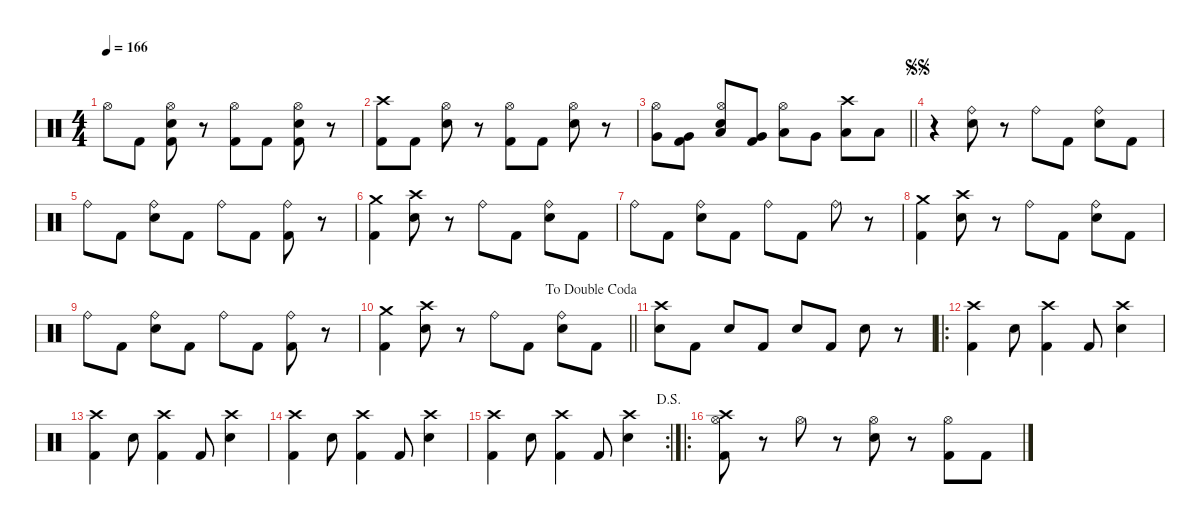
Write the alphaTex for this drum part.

\defaultSystemsLayout 4
\hideDynamics
\bracketExtendMode nobrackets
\singleTrackTrackNamePolicy hidden
\multiTrackTrackNamePolicy hidden
\firstSystemTrackNameMode fullname
\otherSystemsTrackNameOrientation horizontal
\track ("Drums" "drm.") {instrument percussion}
\staff {score}
\articulation defaults
\ts (4 4)
\tempo 166
\clef neutral
\ks c "Hi-Hat (open)".8{dy f beam Down} "Kick (hit) 2".8{beam Down}
("Snare (hit) 2" "Hi-Hat (open)" "Kick (hit) 2").8{beam Down} r.8{beam Down} ("Hi-Hat (open)" "Kick (hit) 2").8{beam Down} "Kick (hit) 2".8{beam Down} ("Snare (hit) 2" "Hi-Hat (open)" "Kick (hit) 2").8{beam Down} r.8{beam Down} |
("Kick (hit) 2" "Crash high (hit)").8{beam Down} "Kick (hit) 2".8{beam Down} ("Snare (hit) 2" "Hi-Hat (open)").8{beam Down} r.8{beam Down} ("Hi-Hat (open)" "Kick (hit) 2").8{beam Down} "Kick (hit) 2".8{beam Down} ("Snare (hit) 2" "Hi-Hat (open)").8{beam Down} r.8{beam Down} |
\barLineRight lightlight
("Hi-Hat (open)" "Very Low Tom (hit)").8{beam Down} ("Kick (hit) 2" "Very Low Tom (hit)").8{beam Down} ("Snare (hit) 2" "Low Floor Tom (hit)" "Hi-Hat (open)").8{beam Up} ("Kick (hit) 2" "Very Low Tom (hit)").8{beam Up} ("Hi-Hat (open)" "Low Floor Tom (hit)").8{beam Down} "Very Low Tom (hit)".8{beam Down} ("Low Floor Tom (hit)" "Crash high (hit)").8{beam Down} "Low Floor Tom (hit)".8{beam Down} |
\jump segnosegno
r.4{beam Down} ("Snare (hit) 2" "Ride (bell)").8{beam Down} r.8{beam Down} "Ride (bell)".8{beam Down} "Kick (hit) 2".8{beam Down} ("Snare (hit) 2" "Ride (bell)").8{beam Down} "Kick (hit) 2".8{beam Down} |
"Ride (bell)".8{beam Down} "Kick (hit) 2".8{beam Down} ("Snare (hit) 2" "Ride (bell)").8{beam Down} "Kick (hit) 2".8{beam Down} "Ride (bell)".8{beam Down} "Kick (hit) 2".8{beam Down} ("Ride (bell)" "Kick (hit) 2").8{beam Down} r.8{beam Down} |
("Crash medium (hit)" "Kick (hit) 2").4{beam Down} ("Snare (hit) 2" "Crash high (hit)").8{beam Down} r.8{beam Down} "Ride (bell)".8{beam Down} "Kick (hit) 2".8{beam Down} ("Snare (hit) 2" "Ride (bell)").8{beam Down} "Kick (hit) 2".8{beam Down} |
"Ride (bell)".8{beam Down} "Kick (hit) 2".8{beam Down} ("Snare (hit) 2" "Ride (bell)").8{beam Down} "Kick (hit) 2".8{beam Down} "Ride (bell)".8{beam Down} "Kick (hit) 2".8{beam Down} "Ride (bell)".8{beam Down} r.8{beam Down} |
("Kick (hit) 2" "Crash medium (hit)").4{beam Down} ("Snare (hit) 2" "Crash high (hit)").8{beam Down} r.8{beam Down} "Ride (bell)".8{beam Down} "Kick (hit) 2".8{beam Down} ("Snare (hit) 2" "Ride (bell)").8{beam Down} "Kick (hit) 2".8{beam Down} |
"Ride (bell)".8{beam Down} "Kick (hit) 2".8{beam Down} ("Snare (hit) 2" "Ride (bell)").8{beam Down} "Kick (hit) 2".8{beam Down} "Ride (bell)".8{beam Down} "Kick (hit) 2".8{beam Down} ("Ride (bell)" "Kick (hit) 2").8{beam Down} r.8{beam Down} |
\jump dadoublecoda
\barLineRight lightlight
("Crash medium (hit)" "Kick (hit) 2").4{beam Down} ("Snare (hit) 2" "Crash high (hit)").8{beam Down} r.8{beam Down} "Ride (bell)".8{beam Down} "Kick (hit) 2".8{beam Down} ("Snare (hit) 2" "Ride (bell)").8{beam Down} "Kick (hit) 2".8{beam Down} |
("Crash high (hit)" "Snare (hit) 2").8{beam Down} "Kick (hit) 2".8{beam Down} "Snare (hit) 2".8{beam Up} "Kick (hit) 2".8{beam Up} "Snare (hit) 2".8{beam Up} "Kick (hit) 2".8{beam Up} "Snare (hit) 2".8{beam Down} r.8{beam Down} |
\ro
("Kick (hit) 2" "Crash high (hit)").4{beam Down} "Snare (hit) 2".8{beam Down} ("Kick (hit) 2" "Crash high (hit)").4{beam Down} "Kick (hit) 2".8{beam Up} ("Snare (hit) 2" "Crash high (hit)").4{beam Down} |
("Kick (hit) 2" "Crash high (hit)").4{beam Down} "Snare (hit) 2".8{beam Down} ("Kick (hit) 2" "Crash high (hit)").4{beam Down} "Kick (hit) 2".8{beam Up} ("Snare (hit) 2" "Crash high (hit)").4{beam Down} |
("Kick (hit) 2" "Crash high (hit)").4{beam Down} "Snare (hit) 2".8{beam Down} ("Kick (hit) 2" "Crash high (hit)").4{beam Down} "Kick (hit) 2".8{beam Up} ("Snare (hit) 2" "Crash high (hit)").4{beam Down} |
\rc 2
\jump dalsegno
("Kick (hit) 2" "Crash high (hit)").4{beam Down} "Snare (hit) 2".8{beam Down} ("Kick (hit) 2" "Crash high (hit)").4{beam Down} "Kick (hit) 2".8{beam Up} ("Snare (hit) 2" "Crash high (hit)").4{beam Down} |
\ro
("Hi-Hat (open)" "Kick (hit) 2" "Crash high (hit)").8{beam Down} r.8{beam Down} "Hi-Hat (open)".8{beam Down} r.8{beam Down} ("Snare (hit) 2" "Hi-Hat (open)").8{beam Down} r.8{beam Down} ("Hi-Hat (open)" "Kick (hit) 2").8{beam Down} "Kick (hit) 2".8{beam Down}
